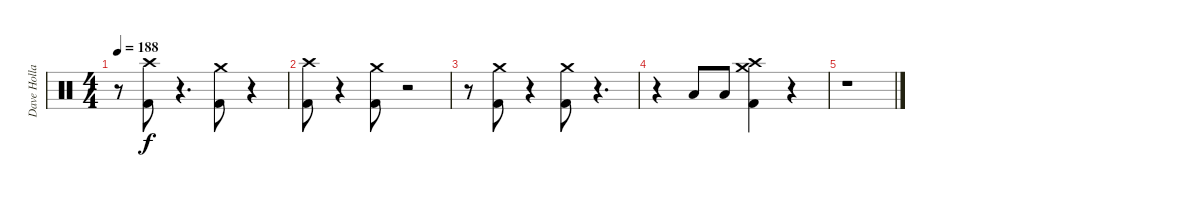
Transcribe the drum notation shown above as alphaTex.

\track ("Dave Holland" "Dave Holla") {instrument percussion}
\staff {score}
\articulation defaults
\ts (4 4)
\tempo 188
\clef neutral
\ks c
r.8{dy f} ("Kick (hit) 2" "Crash high (hit)").8 r.4{d} ("Kick (hit) 2" "Crash medium (hit)").8 r.4 |
("Kick (hit) 2" "Crash high (hit)").8 r.4 ("Kick (hit) 2" "Crash medium (hit)").8 r.2 |
r.8 ("Kick (hit) 2" "Crash medium (hit)").8 r.4 ("Kick (hit) 2" "Crash medium (hit)").8 r.4{d} |
r.4 "Low Tom (hit)".8 "Low Floor Tom (hit)".8 ("Kick (hit) 2" "Crash medium (hit)" "Crash high (hit)").4 r.4 |
r.1
